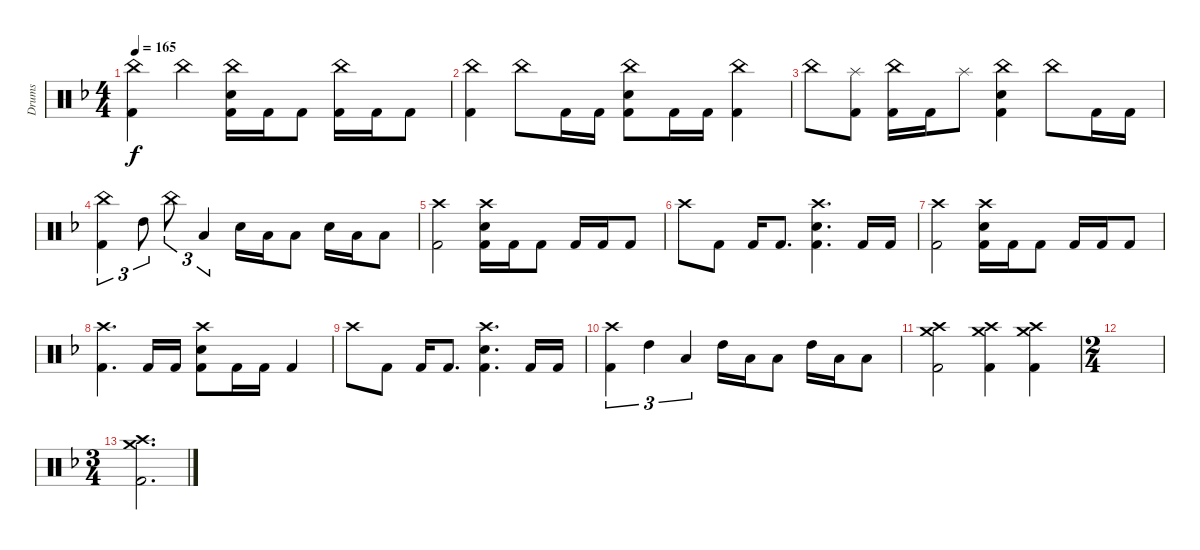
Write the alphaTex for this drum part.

\track ("Drums" "Drums") {instrument percussion}
\staff {score}
\articulation defaults
\ts (4 4)
\tempo 165
\clef neutral
\ks f
("China (hit)" "Kick (hit) 2").4{dy f} "China (hit)".4 ("China (hit)" "Electric Snare (hit)" "Kick (hit) 2").16 "Kick (hit) 2".16 "Kick (hit) 2".8 ("China (hit)" "Kick (hit) 2").16 "Kick (hit) 2".16 "Kick (hit) 2".8 |
("China (hit)" "Kick (hit) 2").4 "China (hit)".8 "Kick (hit) 2".16 "Kick (hit) 2".16 ("China (hit)" "Electric Snare (hit)" "Kick (hit) 2").8 "Kick (hit) 2".16 "Kick (hit) 2".16 ("China (hit)" "Kick (hit) 2").4 |
"China (hit)".8 ("Splash (hit)" "Kick (hit) 2").8 ("China (hit)" "Kick (hit) 2").16 "Kick (hit) 2".16 "Splash (hit)".8 ("China (hit)" "Electric Snare (hit)" "Kick (hit) 2").4 "China (hit)".8 "Kick (hit) 2".16 "Kick (hit) 2".16 |
("China (hit)" "Kick (hit) 2").4{tu (3 2)} "High Tom (hit)".8{tu (3 2)} "China (hit)".8{tu (3 2)} "Low Tom (hit)".4{tu (3 2)} "Electric Snare (hit)".16 "Low Tom (hit)".16 "Low Tom (hit)".8 "Electric Snare (hit)".16 "Low Tom (hit)".16 "Low Tom (hit)".8 |
("Crash high (hit)" "Kick (hit) 2").2 ("Crash high (hit)" "Electric Snare (hit)" "Kick (hit) 2").16 "Kick (hit) 2".16 "Kick (hit) 2".8 "Kick (hit) 2".16 "Kick (hit) 2".16 "Kick (hit) 2".8 |
"Crash high (hit)".8 "Kick (hit) 2".8 "Kick (hit) 2".16 "Kick (hit) 2".8{d} ("Crash high (hit)" "Electric Snare (hit)" "Kick (hit) 2").4{d} "Kick (hit) 2".16 "Kick (hit) 2".16 |
("Crash high (hit)" "Kick (hit) 2").2 ("Crash high (hit)" "Electric Snare (hit)" "Kick (hit) 2").16 "Kick (hit) 2".16 "Kick (hit) 2".8 "Kick (hit) 2".16 "Kick (hit) 2".16 "Kick (hit) 2".8 |
("Crash high (hit)" "Kick (hit) 2").4{d} "Kick (hit) 2".16 "Kick (hit) 2".16 ("Crash high (hit)" "Electric Snare (hit)" "Kick (hit) 2").8 "Kick (hit) 2".16 "Kick (hit) 2".16 "Kick (hit) 2".4 |
"Crash high (hit)".8 "Kick (hit) 2".8 "Kick (hit) 2".16 "Kick (hit) 2".8{d} ("Crash high (hit)" "Electric Snare (hit)" "Kick (hit) 2").4{d} "Kick (hit) 2".16 "Kick (hit) 2".16 |
("Crash high (hit)" "Kick (hit) 2").4{tu (3 2)} "High Tom (hit)".4{tu (3 2)} "Low Tom (hit)".4{tu (3 2)} "High Tom (hit)".16 "Low Tom (hit)".16 "Low Tom (hit)".8 "High Tom (hit)".16 "Low Tom (hit)".16 "Low Tom (hit)".8 |
("Crash high (hit)" "Crash medium (hit)" "Kick (hit) 2").2 ("Crash high (hit)" "Crash medium (hit)" "Kick (hit) 2").4 ("Crash high (hit)" "Crash medium (hit)" "Kick (hit) 2").4 |
\ts (2 4)
|
\ts (3 4)
("Crash high (hit)" "Crash medium (hit)" "Kick (hit) 2").2{d}
